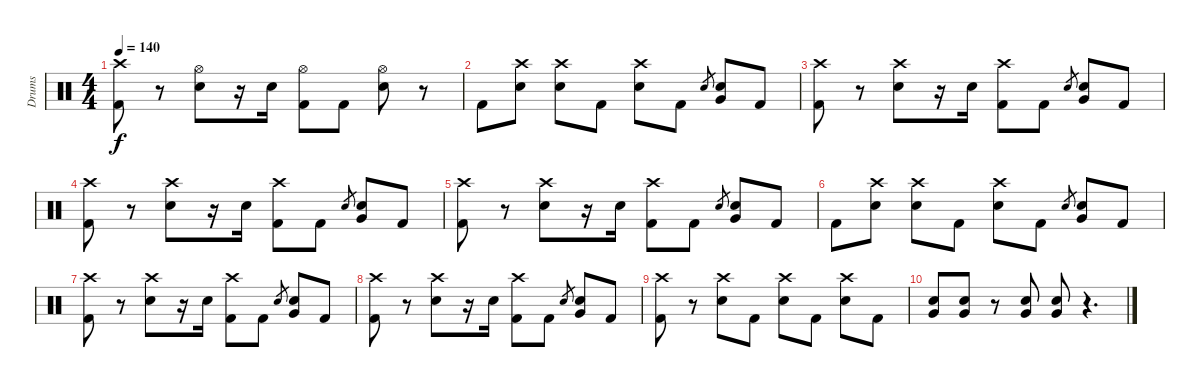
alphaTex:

\track ("Drums" "Drums") {instrument percussion}
\staff {score}
\articulation defaults
\ts (4 4)
\tempo 140
\clef neutral
\ks c
("Crash high (hit)" "Kick (hit) 2").8{dy f} r.8 ("Hi-Hat (open)" "Electric Snare (hit)").8 r.16 "Electric Snare (hit)".16 ("Hi-Hat (open)" "Kick (hit) 2").8 "Kick (hit) 2".8 ("Hi-Hat (open)" "Electric Snare (hit)").8 r.8 |
"Kick (hit) 2".8 ("Crash high (hit)" "Electric Snare (hit)").8 ("Crash high (hit)" "Electric Snare (hit)").8 "Kick (hit) 2".8 ("Crash high (hit)" "Electric Snare (hit)").8 "Kick (hit) 2".8 "Electric Snare (hit)".8{gr} ("Very Low Tom (hit)" "Electric Snare (hit)").8 "Kick (hit) 2".8 |
("Crash high (hit)" "Kick (hit) 2").8 r.8 ("Crash high (hit)" "Electric Snare (hit)").8 r.16 "Electric Snare (hit)".16 ("Crash high (hit)" "Kick (hit) 2").8 "Kick (hit) 2".8 "Electric Snare (hit)".8{gr} ("Very Low Tom (hit)" "Electric Snare (hit)").8 "Kick (hit) 2".8 |
("Crash high (hit)" "Kick (hit) 2").8 r.8 ("Crash high (hit)" "Electric Snare (hit)").8 r.16 "Electric Snare (hit)".16 ("Crash high (hit)" "Kick (hit) 2").8 "Kick (hit) 2".8 "Electric Snare (hit)".8{gr} ("Very Low Tom (hit)" "Electric Snare (hit)").8 "Kick (hit) 2".8 |
("Crash high (hit)" "Kick (hit) 2").8 r.8 ("Crash high (hit)" "Electric Snare (hit)").8 r.16 "Electric Snare (hit)".16 ("Crash high (hit)" "Kick (hit) 2").8 "Kick (hit) 2".8 "Electric Snare (hit)".8{gr} ("Very Low Tom (hit)" "Electric Snare (hit)").8 "Kick (hit) 2".8 |
"Kick (hit) 2".8 ("Crash high (hit)" "Electric Snare (hit)").8 ("Crash high (hit)" "Electric Snare (hit)").8 "Kick (hit) 2".8 ("Crash high (hit)" "Electric Snare (hit)").8 "Kick (hit) 2".8 "Electric Snare (hit)".8{gr} ("Very Low Tom (hit)" "Electric Snare (hit)").8 "Kick (hit) 2".8 |
("Crash high (hit)" "Kick (hit) 2").8 r.8 ("Crash high (hit)" "Electric Snare (hit)").8 r.16 "Electric Snare (hit)".16 ("Crash high (hit)" "Kick (hit) 2").8 "Kick (hit) 2".8 "Electric Snare (hit)".8{gr} ("Very Low Tom (hit)" "Electric Snare (hit)").8 "Kick (hit) 2".8 |
("Crash high (hit)" "Kick (hit) 2").8 r.8 ("Crash high (hit)" "Electric Snare (hit)").8 r.16 "Electric Snare (hit)".16 ("Crash high (hit)" "Kick (hit) 2").8 "Kick (hit) 2".8 "Electric Snare (hit)".8{gr} ("Very Low Tom (hit)" "Electric Snare (hit)").8 "Kick (hit) 2".8 |
("Crash high (hit)" "Kick (hit) 2").8 r.8 ("Crash high (hit)" "Electric Snare (hit)").8 "Kick (hit) 2".8 ("Crash high (hit)" "Electric Snare (hit)").8 "Kick (hit) 2".8 ("Crash high (hit)" "Electric Snare (hit)").8 "Kick (hit) 2".8 |
("Very Low Tom (hit)" "Electric Snare (hit)").8 ("Very Low Tom (hit)" "Electric Snare (hit)").8 r.8 ("Very Low Tom (hit)" "Electric Snare (hit)").8 ("Very Low Tom (hit)" "Electric Snare (hit)").8 r.4{d}
